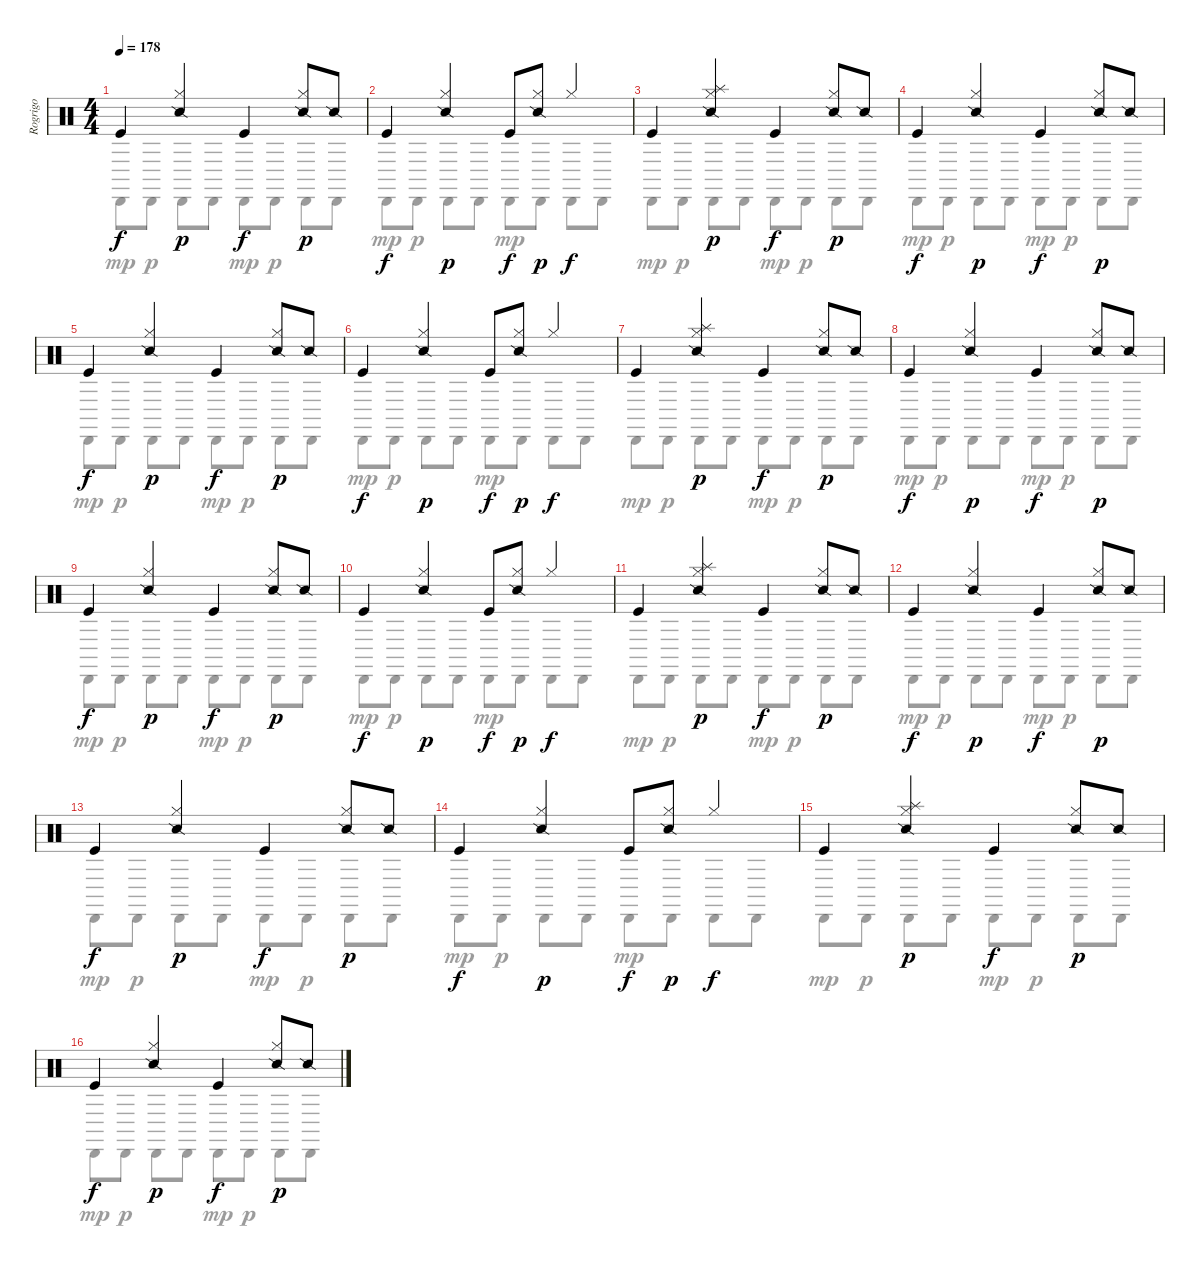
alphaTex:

\track ("Rogrigo" "Rogrigo") {instrument percussion}
\staff {score}
\articulation defaults
\voice
\ts (4 4)
\tempo 178
\clef neutral
\ks c "Kick (hit)".4{dy f}
("Hi-Hat (closed)" "Snare (side stick) 2").4{dy p} "Kick (hit)".4{dy f} ("Hi-Hat (closed)" "Snare (side stick) 2").8{dy p} "Snare (side stick) 2".8 |
"Kick (hit)".4{dy f} ("Hi-Hat (closed)" "Snare (side stick) 2").4{dy p} "Kick (hit)".8{dy f} ("Hi-Hat (closed)" "Snare (side stick) 2").8{dy p} "Hi-Hat (closed)".4{dy f} |
"Kick (hit)".4 ("Hi-Hat (closed)" "Splash (hit)" "Snare (side stick) 2").4{dy p} "Kick (hit)".4{dy f} ("Hi-Hat (closed)" "Snare (side stick) 2").8{dy p} "Snare (side stick) 2".8 |
"Kick (hit)".4{dy f} ("Hi-Hat (closed)" "Snare (side stick) 2").4{dy p} "Kick (hit)".4{dy f} ("Hi-Hat (closed)" "Snare (side stick) 2").8{dy p} "Snare (side stick) 2".8 |
"Kick (hit)".4{dy f} ("Hi-Hat (closed)" "Snare (side stick) 2").4{dy p} "Kick (hit)".4{dy f} ("Hi-Hat (closed)" "Snare (side stick) 2").8{dy p} "Snare (side stick) 2".8 |
"Kick (hit)".4{dy f} ("Hi-Hat (closed)" "Snare (side stick) 2").4{dy p} "Kick (hit)".8{dy f} ("Hi-Hat (closed)" "Snare (side stick) 2").8{dy p} "Hi-Hat (closed)".4{dy f} |
"Kick (hit)".4 ("Hi-Hat (closed)" "Splash (hit)" "Snare (side stick) 2").4{dy p} "Kick (hit)".4{dy f} ("Hi-Hat (closed)" "Snare (side stick) 2").8{dy p} "Snare (side stick) 2".8 |
"Kick (hit)".4{dy f} ("Hi-Hat (closed)" "Snare (side stick) 2").4{dy p} "Kick (hit)".4{dy f} ("Hi-Hat (closed)" "Snare (side stick) 2").8{dy p} "Snare (side stick) 2".8 |
"Kick (hit)".4{dy f} ("Hi-Hat (closed)" "Snare (side stick) 2").4{dy p} "Kick (hit)".4{dy f} ("Hi-Hat (closed)" "Snare (side stick) 2").8{dy p} "Snare (side stick) 2".8 |
"Kick (hit)".4{dy f} ("Hi-Hat (closed)" "Snare (side stick) 2").4{dy p} "Kick (hit)".8{dy f} ("Hi-Hat (closed)" "Snare (side stick) 2").8{dy p} "Hi-Hat (closed)".4{dy f} |
"Kick (hit)".4 ("Hi-Hat (closed)" "Splash (hit)" "Snare (side stick) 2").4{dy p} "Kick (hit)".4{dy f} ("Hi-Hat (closed)" "Snare (side stick) 2").8{dy p} "Snare (side stick) 2".8 |
"Kick (hit)".4{dy f} ("Hi-Hat (closed)" "Snare (side stick) 2").4{dy p} "Kick (hit)".4{dy f} ("Hi-Hat (closed)" "Snare (side stick) 2").8{dy p} "Snare (side stick) 2".8 |
"Kick (hit)".4{dy f} ("Hi-Hat (closed)" "Snare (side stick) 2").4{dy p} "Kick (hit)".4{dy f} ("Hi-Hat (closed)" "Snare (side stick) 2").8{dy p} "Snare (side stick) 2".8 |
"Kick (hit)".4{dy f} ("Hi-Hat (closed)" "Snare (side stick) 2").4{dy p} "Kick (hit)".8{dy f} ("Hi-Hat (closed)" "Snare (side stick) 2").8{dy p} "Hi-Hat (closed)".4{dy f} |
"Kick (hit)".4 ("Hi-Hat (closed)" "Splash (hit)" "Snare (side stick) 2").4{dy p} "Kick (hit)".4{dy f} ("Hi-Hat (closed)" "Snare (side stick) 2").8{dy p} "Snare (side stick) 2".8 |
"Kick (hit)".4{dy f} ("Hi-Hat (closed)" "Snare (side stick) 2").4{dy p} "Kick (hit)".4{dy f} ("Hi-Hat (closed)" "Snare (side stick) 2").8{dy p} "Snare (side stick) 2".8
\voice
\clef neutral
\ottava regular
\simile none
\ks c "Cabasa (hit)".8{dy mp} "Cabasa (hit)".8{dy p} "Cabasa (hit)".8 "Cabasa (hit)".8 "Cabasa (hit)".8{dy mp} "Cabasa (hit)".8{dy p} "Cabasa (hit)".8 "Cabasa (hit)".8
|
"Cabasa (hit)".8{dy mp} "Cabasa (hit)".8{dy p} "Cabasa (hit)".8 "Cabasa (hit)".8 "Cabasa (hit)".8{dy mp} "Cabasa (hit)".8{dy p} "Cabasa (hit)".8 "Cabasa (hit)".8 |
"Cabasa (hit)".8{dy mp} "Cabasa (hit)".8{dy p} "Cabasa (hit)".8 "Cabasa (hit)".8 "Cabasa (hit)".8{dy mp} "Cabasa (hit)".8{dy p} "Cabasa (hit)".8 "Cabasa (hit)".8 |
"Cabasa (hit)".8{dy mp} "Cabasa (hit)".8{dy p} "Cabasa (hit)".8 "Cabasa (hit)".8 "Cabasa (hit)".8{dy mp} "Cabasa (hit)".8{dy p} "Cabasa (hit)".8 "Cabasa (hit)".8 |
"Cabasa (hit)".8{dy mp} "Cabasa (hit)".8{dy p} "Cabasa (hit)".8 "Cabasa (hit)".8 "Cabasa (hit)".8{dy mp} "Cabasa (hit)".8{dy p} "Cabasa (hit)".8 "Cabasa (hit)".8 |
"Cabasa (hit)".8{dy mp} "Cabasa (hit)".8{dy p} "Cabasa (hit)".8 "Cabasa (hit)".8 "Cabasa (hit)".8{dy mp} "Cabasa (hit)".8{dy p} "Cabasa (hit)".8 "Cabasa (hit)".8 |
"Cabasa (hit)".8{dy mp} "Cabasa (hit)".8{dy p} "Cabasa (hit)".8 "Cabasa (hit)".8 "Cabasa (hit)".8{dy mp} "Cabasa (hit)".8{dy p} "Cabasa (hit)".8 "Cabasa (hit)".8 |
"Cabasa (hit)".8{dy mp} "Cabasa (hit)".8{dy p} "Cabasa (hit)".8 "Cabasa (hit)".8 "Cabasa (hit)".8{dy mp} "Cabasa (hit)".8{dy p} "Cabasa (hit)".8 "Cabasa (hit)".8 |
"Cabasa (hit)".8{dy mp} "Cabasa (hit)".8{dy p} "Cabasa (hit)".8 "Cabasa (hit)".8 "Cabasa (hit)".8{dy mp} "Cabasa (hit)".8{dy p} "Cabasa (hit)".8 "Cabasa (hit)".8 |
"Cabasa (hit)".8{dy mp} "Cabasa (hit)".8{dy p} "Cabasa (hit)".8 "Cabasa (hit)".8 "Cabasa (hit)".8{dy mp} "Cabasa (hit)".8{dy p} "Cabasa (hit)".8 "Cabasa (hit)".8 |
"Cabasa (hit)".8{dy mp} "Cabasa (hit)".8{dy p} "Cabasa (hit)".8 "Cabasa (hit)".8 "Cabasa (hit)".8{dy mp} "Cabasa (hit)".8{dy p} "Cabasa (hit)".8 "Cabasa (hit)".8 |
"Cabasa (hit)".8{dy mp} "Cabasa (hit)".8{dy p} "Cabasa (hit)".8 "Cabasa (hit)".8 "Cabasa (hit)".8{dy mp} "Cabasa (hit)".8{dy p} "Cabasa (hit)".8 "Cabasa (hit)".8 |
"Cabasa (hit)".8{dy mp} "Cabasa (hit)".8{dy p} "Cabasa (hit)".8 "Cabasa (hit)".8 "Cabasa (hit)".8{dy mp} "Cabasa (hit)".8{dy p} "Cabasa (hit)".8 "Cabasa (hit)".8 |
"Cabasa (hit)".8{dy mp} "Cabasa (hit)".8{dy p} "Cabasa (hit)".8 "Cabasa (hit)".8 "Cabasa (hit)".8{dy mp} "Cabasa (hit)".8{dy p} "Cabasa (hit)".8 "Cabasa (hit)".8 |
"Cabasa (hit)".8{dy mp} "Cabasa (hit)".8{dy p} "Cabasa (hit)".8 "Cabasa (hit)".8 "Cabasa (hit)".8{dy mp} "Cabasa (hit)".8{dy p} "Cabasa (hit)".8 "Cabasa (hit)".8 |
"Cabasa (hit)".8{dy mp} "Cabasa (hit)".8{dy p} "Cabasa (hit)".8 "Cabasa (hit)".8 "Cabasa (hit)".8{dy mp} "Cabasa (hit)".8{dy p} "Cabasa (hit)".8 "Cabasa (hit)".8
